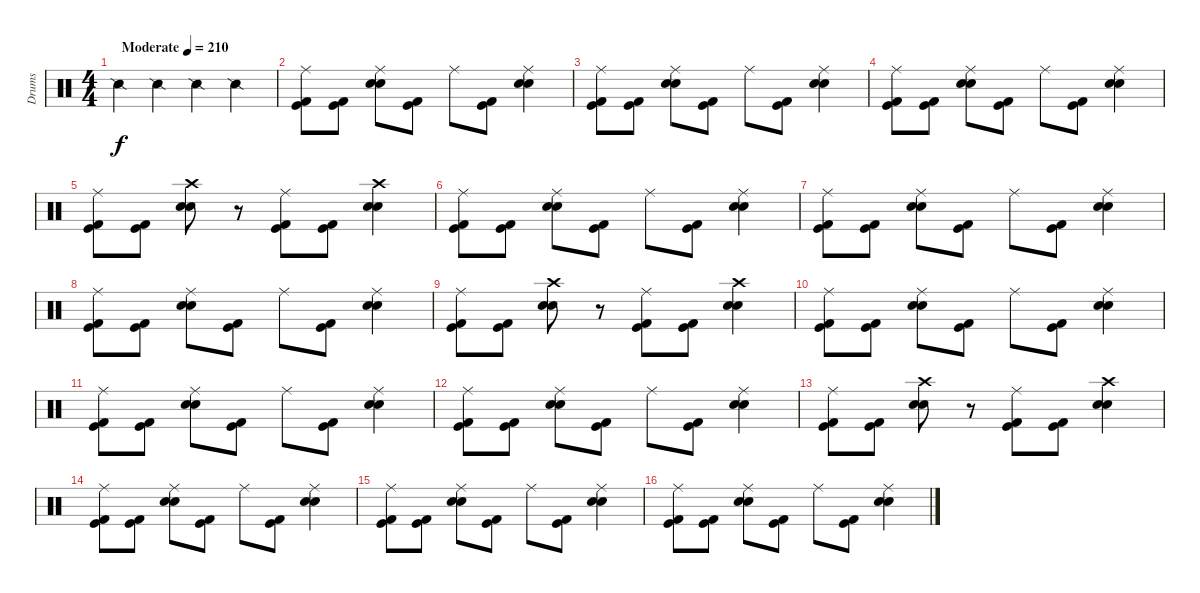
\track ("Drums" "Drums") {instrument percussion}
\staff {score}
\articulation defaults
\ts (4 4)
\tempo (210 "Moderate")
\clef neutral
\ks c "Snare (side stick) 2".4{dy f} "Snare (side stick) 2".4 "Snare (side stick) 2".4 "Snare (side stick) 2".4
|
("Ride (middle)" "Kick (hit) 2" "Kick (hit)").8 ("Kick (hit) 2" "Kick (hit)").8 ("Ride (middle)" "Electric Snare (hit)" "Snare (hit) 2").8 ("Kick (hit) 2" "Kick (hit)").8 "Ride (middle)".8 ("Kick (hit) 2" "Kick (hit)").8 ("Ride (middle)" "Electric Snare (hit)" "Snare (hit) 2").4 |
("Ride (middle)" "Kick (hit) 2" "Kick (hit)").8 ("Kick (hit) 2" "Kick (hit)").8 ("Ride (middle)" "Electric Snare (hit)" "Snare (hit) 2").8 ("Kick (hit) 2" "Kick (hit)").8 "Ride (middle)".8 ("Kick (hit) 2" "Kick (hit)").8 ("Ride (middle)" "Electric Snare (hit)" "Snare (hit) 2").4 |
("Ride (middle)" "Kick (hit) 2" "Kick (hit)").8 ("Kick (hit) 2" "Kick (hit)").8 ("Ride (middle)" "Electric Snare (hit)" "Snare (hit) 2").8 ("Kick (hit) 2" "Kick (hit)").8 "Ride (middle)".8 ("Kick (hit) 2" "Kick (hit)").8 ("Ride (middle)" "Electric Snare (hit)" "Snare (hit) 2").4 |
("Ride (middle)" "Kick (hit) 2" "Kick (hit)").8 ("Kick (hit) 2" "Kick (hit)").8 ("Crash high (hit)" "Electric Snare (hit)" "Snare (hit) 2").8 r.8 ("Ride (middle)" "Kick (hit) 2" "Kick (hit)").8 ("Kick (hit) 2" "Kick (hit)").8 ("Crash high (hit)" "Electric Snare (hit)" "Snare (hit) 2").4 |
("Ride (middle)" "Kick (hit) 2" "Kick (hit)").8 ("Kick (hit) 2" "Kick (hit)").8 ("Ride (middle)" "Electric Snare (hit)" "Snare (hit) 2").8 ("Kick (hit) 2" "Kick (hit)").8 "Ride (middle)".8 ("Kick (hit) 2" "Kick (hit)").8 ("Ride (middle)" "Electric Snare (hit)" "Snare (hit) 2").4 |
("Ride (middle)" "Kick (hit) 2" "Kick (hit)").8 ("Kick (hit) 2" "Kick (hit)").8 ("Ride (middle)" "Electric Snare (hit)" "Snare (hit) 2").8 ("Kick (hit) 2" "Kick (hit)").8 "Ride (middle)".8 ("Kick (hit) 2" "Kick (hit)").8 ("Ride (middle)" "Electric Snare (hit)" "Snare (hit) 2").4 |
("Ride (middle)" "Kick (hit) 2" "Kick (hit)").8 ("Kick (hit) 2" "Kick (hit)").8 ("Ride (middle)" "Electric Snare (hit)" "Snare (hit) 2").8 ("Kick (hit) 2" "Kick (hit)").8 "Ride (middle)".8 ("Kick (hit) 2" "Kick (hit)").8 ("Ride (middle)" "Electric Snare (hit)" "Snare (hit) 2").4 |
("Ride (middle)" "Kick (hit) 2" "Kick (hit)").8 ("Kick (hit) 2" "Kick (hit)").8 ("Crash high (hit)" "Electric Snare (hit)" "Snare (hit) 2").8 r.8 ("Ride (middle)" "Kick (hit) 2" "Kick (hit)").8 ("Kick (hit) 2" "Kick (hit)").8 ("Crash high (hit)" "Electric Snare (hit)" "Snare (hit) 2").4 |
("Ride (middle)" "Kick (hit) 2" "Kick (hit)").8 ("Kick (hit) 2" "Kick (hit)").8 ("Ride (middle)" "Electric Snare (hit)" "Snare (hit) 2").8 ("Kick (hit) 2" "Kick (hit)").8 "Ride (middle)".8 ("Kick (hit) 2" "Kick (hit)").8 ("Ride (middle)" "Electric Snare (hit)" "Snare (hit) 2").4 |
("Ride (middle)" "Kick (hit) 2" "Kick (hit)").8 ("Kick (hit) 2" "Kick (hit)").8 ("Ride (middle)" "Electric Snare (hit)" "Snare (hit) 2").8 ("Kick (hit) 2" "Kick (hit)").8 "Ride (middle)".8 ("Kick (hit) 2" "Kick (hit)").8 ("Ride (middle)" "Electric Snare (hit)" "Snare (hit) 2").4 |
("Ride (middle)" "Kick (hit) 2" "Kick (hit)").8 ("Kick (hit) 2" "Kick (hit)").8 ("Ride (middle)" "Electric Snare (hit)" "Snare (hit) 2").8 ("Kick (hit) 2" "Kick (hit)").8 "Ride (middle)".8 ("Kick (hit) 2" "Kick (hit)").8 ("Ride (middle)" "Electric Snare (hit)" "Snare (hit) 2").4 |
("Ride (middle)" "Kick (hit) 2" "Kick (hit)").8 ("Kick (hit) 2" "Kick (hit)").8 ("Crash high (hit)" "Electric Snare (hit)" "Snare (hit) 2").8 r.8 ("Ride (middle)" "Kick (hit) 2" "Kick (hit)").8 ("Kick (hit) 2" "Kick (hit)").8 ("Crash high (hit)" "Electric Snare (hit)" "Snare (hit) 2").4 |
("Ride (middle)" "Kick (hit) 2" "Kick (hit)").8 ("Kick (hit) 2" "Kick (hit)").8 ("Ride (middle)" "Electric Snare (hit)" "Snare (hit) 2").8 ("Kick (hit) 2" "Kick (hit)").8 "Ride (middle)".8 ("Kick (hit) 2" "Kick (hit)").8 ("Ride (middle)" "Electric Snare (hit)" "Snare (hit) 2").4 |
("Ride (middle)" "Kick (hit) 2" "Kick (hit)").8 ("Kick (hit) 2" "Kick (hit)").8 ("Ride (middle)" "Electric Snare (hit)" "Snare (hit) 2").8 ("Kick (hit) 2" "Kick (hit)").8 "Ride (middle)".8 ("Kick (hit) 2" "Kick (hit)").8 ("Ride (middle)" "Electric Snare (hit)" "Snare (hit) 2").4 |
("Ride (middle)" "Kick (hit) 2" "Kick (hit)").8 ("Kick (hit) 2" "Kick (hit)").8 ("Ride (middle)" "Electric Snare (hit)" "Snare (hit) 2").8 ("Kick (hit) 2" "Kick (hit)").8 "Ride (middle)".8 ("Kick (hit) 2" "Kick (hit)").8 ("Ride (middle)" "Electric Snare (hit)" "Snare (hit) 2").4
